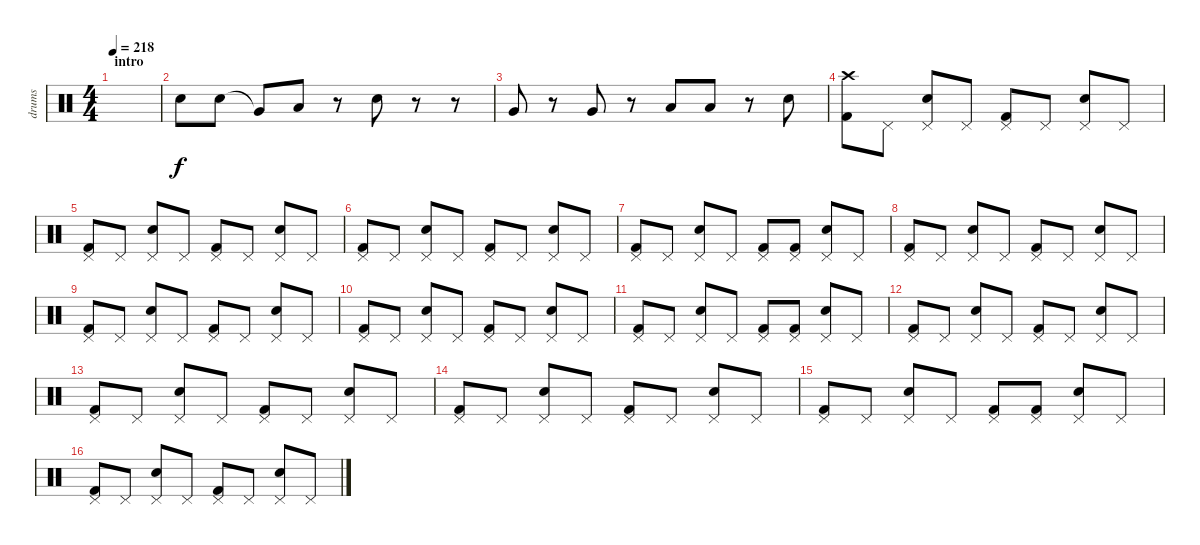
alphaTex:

\track ("drums" "drums") {instrument percussion}
\staff {score}
\articulation defaults
\ts (4 4)
\section ("" "intro")
\tempo 218
\clef neutral
\ks c
|
"Snare (hit) 2".8 "Snare (hit) 2".8 "Very Low Tom (hit)"{t}.8 "Low Tom (hit)".8 r.8 "Snare (hit) 2".8 r.8 r.8 |
"Very Low Tom (hit)".8 r.8 "Very Low Tom (hit)".8 r.8 "Low Floor Tom (hit)".8 "Low Floor Tom (hit)".8 r.8 "Snare (hit) 2".8 |
("Kick (hit) 2" "Crash high (hit)").8 "Pedal Hi-Hat (hit)".8 ("Snare (hit) 2" "Pedal Hi-Hat (hit)").8 "Pedal Hi-Hat (hit)".8 ("Kick (hit) 2" "Pedal Hi-Hat (hit)").8 "Pedal Hi-Hat (hit)".8 ("Snare (hit) 2" "Pedal Hi-Hat (hit)").8 "Pedal Hi-Hat (hit)".8 |
("Kick (hit) 2" "Pedal Hi-Hat (hit)").8 "Pedal Hi-Hat (hit)".8 ("Snare (hit) 2" "Pedal Hi-Hat (hit)").8 "Pedal Hi-Hat (hit)".8 ("Kick (hit) 2" "Pedal Hi-Hat (hit)").8 "Pedal Hi-Hat (hit)".8 ("Snare (hit) 2" "Pedal Hi-Hat (hit)").8 "Pedal Hi-Hat (hit)".8 |
("Kick (hit) 2" "Pedal Hi-Hat (hit)").8 "Pedal Hi-Hat (hit)".8 ("Snare (hit) 2" "Pedal Hi-Hat (hit)").8 "Pedal Hi-Hat (hit)".8 ("Kick (hit) 2" "Pedal Hi-Hat (hit)").8 "Pedal Hi-Hat (hit)".8 ("Snare (hit) 2" "Pedal Hi-Hat (hit)").8 "Pedal Hi-Hat (hit)".8 |
("Kick (hit) 2" "Pedal Hi-Hat (hit)").8 "Pedal Hi-Hat (hit)".8 ("Snare (hit) 2" "Pedal Hi-Hat (hit)").8 "Pedal Hi-Hat (hit)".8 ("Kick (hit) 2" "Pedal Hi-Hat (hit)").8 ("Kick (hit) 2" "Pedal Hi-Hat (hit)").8 ("Snare (hit) 2" "Pedal Hi-Hat (hit)").8 "Pedal Hi-Hat (hit)".8 |
("Kick (hit) 2" "Pedal Hi-Hat (hit)").8 "Pedal Hi-Hat (hit)".8 ("Snare (hit) 2" "Pedal Hi-Hat (hit)").8 "Pedal Hi-Hat (hit)".8 ("Kick (hit) 2" "Pedal Hi-Hat (hit)").8 "Pedal Hi-Hat (hit)".8 ("Snare (hit) 2" "Pedal Hi-Hat (hit)").8 "Pedal Hi-Hat (hit)".8 |
("Kick (hit) 2" "Pedal Hi-Hat (hit)").8 "Pedal Hi-Hat (hit)".8 ("Snare (hit) 2" "Pedal Hi-Hat (hit)").8 "Pedal Hi-Hat (hit)".8 ("Kick (hit) 2" "Pedal Hi-Hat (hit)").8 "Pedal Hi-Hat (hit)".8 ("Snare (hit) 2" "Pedal Hi-Hat (hit)").8 "Pedal Hi-Hat (hit)".8 |
("Kick (hit) 2" "Pedal Hi-Hat (hit)").8 "Pedal Hi-Hat (hit)".8 ("Snare (hit) 2" "Pedal Hi-Hat (hit)").8 "Pedal Hi-Hat (hit)".8 ("Kick (hit) 2" "Pedal Hi-Hat (hit)").8 "Pedal Hi-Hat (hit)".8 ("Snare (hit) 2" "Pedal Hi-Hat (hit)").8 "Pedal Hi-Hat (hit)".8 |
("Kick (hit) 2" "Pedal Hi-Hat (hit)").8 "Pedal Hi-Hat (hit)".8 ("Snare (hit) 2" "Pedal Hi-Hat (hit)").8 "Pedal Hi-Hat (hit)".8 ("Kick (hit) 2" "Pedal Hi-Hat (hit)").8 ("Kick (hit) 2" "Pedal Hi-Hat (hit)").8 ("Snare (hit) 2" "Pedal Hi-Hat (hit)").8 "Pedal Hi-Hat (hit)".8 |
("Kick (hit) 2" "Pedal Hi-Hat (hit)").8 "Pedal Hi-Hat (hit)".8 ("Snare (hit) 2" "Pedal Hi-Hat (hit)").8 "Pedal Hi-Hat (hit)".8 ("Kick (hit) 2" "Pedal Hi-Hat (hit)").8 "Pedal Hi-Hat (hit)".8 ("Snare (hit) 2" "Pedal Hi-Hat (hit)").8 "Pedal Hi-Hat (hit)".8 |
("Kick (hit) 2" "Pedal Hi-Hat (hit)").8 "Pedal Hi-Hat (hit)".8 ("Snare (hit) 2" "Pedal Hi-Hat (hit)").8 "Pedal Hi-Hat (hit)".8 ("Kick (hit) 2" "Pedal Hi-Hat (hit)").8 "Pedal Hi-Hat (hit)".8 ("Snare (hit) 2" "Pedal Hi-Hat (hit)").8 "Pedal Hi-Hat (hit)".8 |
("Kick (hit) 2" "Pedal Hi-Hat (hit)").8 "Pedal Hi-Hat (hit)".8 ("Snare (hit) 2" "Pedal Hi-Hat (hit)").8 "Pedal Hi-Hat (hit)".8 ("Kick (hit) 2" "Pedal Hi-Hat (hit)").8 "Pedal Hi-Hat (hit)".8 ("Snare (hit) 2" "Pedal Hi-Hat (hit)").8 "Pedal Hi-Hat (hit)".8 |
("Kick (hit) 2" "Pedal Hi-Hat (hit)").8 "Pedal Hi-Hat (hit)".8 ("Snare (hit) 2" "Pedal Hi-Hat (hit)").8 "Pedal Hi-Hat (hit)".8 ("Kick (hit) 2" "Pedal Hi-Hat (hit)").8 ("Kick (hit) 2" "Pedal Hi-Hat (hit)").8 ("Snare (hit) 2" "Pedal Hi-Hat (hit)").8 "Pedal Hi-Hat (hit)".8 |
("Kick (hit) 2" "Pedal Hi-Hat (hit)").8 "Pedal Hi-Hat (hit)".8 ("Snare (hit) 2" "Pedal Hi-Hat (hit)").8 "Pedal Hi-Hat (hit)".8 ("Kick (hit) 2" "Pedal Hi-Hat (hit)").8 "Pedal Hi-Hat (hit)".8 ("Snare (hit) 2" "Pedal Hi-Hat (hit)").8 "Pedal Hi-Hat (hit)".8
